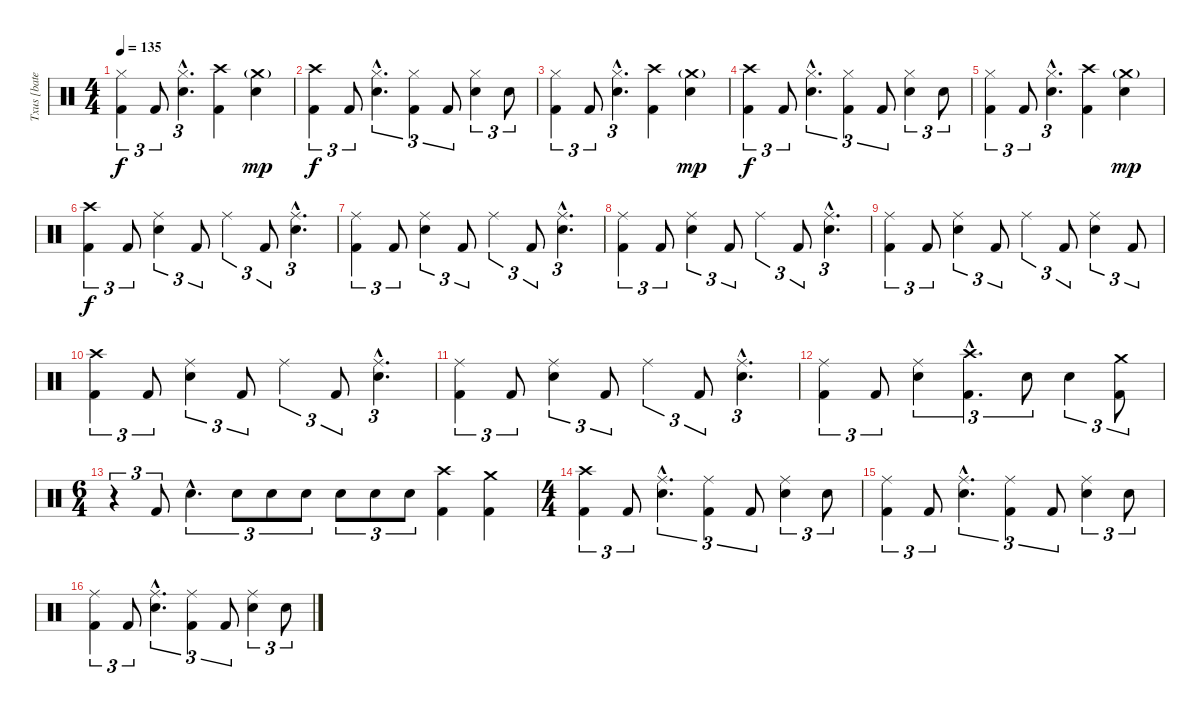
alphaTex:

\track ("Txus [bateria]" "Txus [bate") {instrument percussion}
\staff {score}
\articulation defaults
\ts (4 4)
\tempo 135
\clef neutral
\ks c
("Hi-Hat (closed)" "Kick (hit) 2").4{tu (3 2) dy f} "Kick (hit) 2".8{tu (3 2)} ("Hi-Hat (closed)"{hac} "Snare (hit) 2"{hac}).4{d tu (3 2)} ("Crash high (hit)" "Kick (hit) 2").4 ("Crash medium (hit)"{g} "Snare (hit) 2").4{dy mp} |
("Crash high (hit)" "Kick (hit) 2").4{tu (3 2) dy f} "Kick (hit) 2".8{tu (3 2)} ("Hi-Hat (closed)"{hac} "Snare (hit) 2"{hac}).4{d tu (3 2)} ("Hi-Hat (closed)" "Kick (hit) 2").4{tu (3 2)} "Kick (hit) 2".8{tu (3 2)} ("Hi-Hat (closed)" "Snare (hit) 2").4{tu (3 2)} "Snare (hit) 2".8{tu (3 2)} |
("Hi-Hat (closed)" "Kick (hit) 2").4{tu (3 2)} "Kick (hit) 2".8{tu (3 2)} ("Hi-Hat (closed)"{hac} "Snare (hit) 2"{hac}).4{d tu (3 2)} ("Crash high (hit)" "Kick (hit) 2").4 ("Crash medium (hit)"{g} "Snare (hit) 2").4{dy mp} |
("Crash high (hit)" "Kick (hit) 2").4{tu (3 2) dy f} "Kick (hit) 2".8{tu (3 2)} ("Hi-Hat (closed)"{hac} "Snare (hit) 2"{hac}).4{d tu (3 2)} ("Hi-Hat (closed)" "Kick (hit) 2").4{tu (3 2)} "Kick (hit) 2".8{tu (3 2)} ("Hi-Hat (closed)" "Snare (hit) 2").4{tu (3 2)} "Snare (hit) 2".8{tu (3 2)} |
("Hi-Hat (closed)" "Kick (hit) 2").4{tu (3 2)} "Kick (hit) 2".8{tu (3 2)} ("Hi-Hat (closed)"{hac} "Snare (hit) 2"{hac}).4{d tu (3 2)} ("Crash high (hit)" "Kick (hit) 2").4 ("Crash medium (hit)"{g} "Snare (hit) 2").4{dy mp} |
("Crash high (hit)" "Kick (hit) 2").4{tu (3 2) dy f} "Kick (hit) 2".8{tu (3 2)} ("Ride (middle)" "Snare (hit) 2").4{tu (3 2)} "Kick (hit) 2".8{tu (3 2)} "Ride (middle)".4{tu (3 2)} "Kick (hit) 2".8{tu (3 2)} ("Ride (middle)"{hac} "Snare (hit) 2"{hac}).4{d tu (3 2)} |
("Ride (middle)" "Kick (hit) 2").4{tu (3 2)} "Kick (hit) 2".8{tu (3 2)} ("Ride (middle)" "Snare (hit) 2").4{tu (3 2)} "Kick (hit) 2".8{tu (3 2)} "Ride (middle)".4{tu (3 2)} "Kick (hit) 2".8{tu (3 2)} ("Ride (middle)"{hac} "Snare (hit) 2"{hac}).4{d tu (3 2)} |
("Ride (middle)" "Kick (hit) 2").4{tu (3 2)} "Kick (hit) 2".8{tu (3 2)} ("Ride (middle)" "Snare (hit) 2").4{tu (3 2)} "Kick (hit) 2".8{tu (3 2)} "Ride (middle)".4{tu (3 2)} "Kick (hit) 2".8{tu (3 2)} ("Ride (middle)"{hac} "Snare (hit) 2"{hac}).4{d tu (3 2)} |
("Ride (middle)" "Kick (hit) 2").4{tu (3 2)} "Kick (hit) 2".8{tu (3 2)} ("Ride (middle)" "Snare (hit) 2").4{tu (3 2)} "Kick (hit) 2".8{tu (3 2)} "Ride (middle)".4{tu (3 2)} "Kick (hit) 2".8{tu (3 2)} ("Ride (middle)" "Snare (hit) 2").4{tu (3 2)} "Kick (hit) 2".8{tu (3 2)} |
("Crash high (hit)" "Kick (hit) 2").4{tu (3 2)} "Kick (hit) 2".8{tu (3 2)} ("Ride (middle)" "Snare (hit) 2").4{tu (3 2)} "Kick (hit) 2".8{tu (3 2)} "Ride (middle)".4{tu (3 2)} "Kick (hit) 2".8{tu (3 2)} ("Ride (middle)"{hac} "Snare (hit) 2"{hac}).4{d tu (3 2)} |
("Ride (middle)" "Kick (hit) 2").4{tu (3 2)} "Kick (hit) 2".8{tu (3 2)} ("Ride (middle)" "Snare (hit) 2").4{tu (3 2)} "Kick (hit) 2".8{tu (3 2)} "Ride (middle)".4{tu (3 2)} "Kick (hit) 2".8{tu (3 2)} ("Ride (middle)"{hac} "Snare (hit) 2"{hac}).4{d tu (3 2)} |
("Ride (middle)" "Kick (hit) 2").4{tu (3 2)} "Kick (hit) 2".8{tu (3 2)} ("Ride (middle)" "Snare (hit) 2").4{tu (3 2)} ("Crash high (hit)"{hac} "Kick (hit) 2"{hac}).4{d tu (3 2)} "Snare (hit) 2".8{tu (3 2)} "Snare (hit) 2".4{tu (3 2)} ("Crash medium (hit)" "Kick (hit) 2").8{tu (3 2)} |
\ts (6 4)
r.4{tu (3 2)} "Kick (hit) 2".8{tu (3 2)} "Snare (hit) 2"{hac}.4{d tu (3 2)} "Snare (hit) 2".8{tu (3 2)} "Snare (hit) 2".8{tu (3 2)} "Snare (hit) 2".8{tu (3 2)} "Snare (hit) 2".8{tu (3 2)} "Snare (hit) 2".8{tu (3 2)} "Snare (hit) 2".8{tu (3 2)} ("Crash high (hit)" "Kick (hit) 2").4 ("Crash medium (hit)" "Kick (hit) 2").4 |
\ts (4 4)
("Crash high (hit)" "Kick (hit) 2").4{tu (3 2)} "Kick (hit) 2".8{tu (3 2)} ("Ride (middle)"{hac} "Snare (hit) 2"{hac}).4{d tu (3 2)} ("Ride (middle)" "Kick (hit) 2").4{tu (3 2)} "Kick (hit) 2".8{tu (3 2)} ("Ride (middle)" "Snare (hit) 2").4{tu (3 2)} "Snare (hit) 2".8{tu (3 2)} |
("Ride (middle)" "Kick (hit) 2").4{tu (3 2)} "Kick (hit) 2".8{tu (3 2)} ("Ride (middle)"{hac} "Snare (hit) 2"{hac}).4{d tu (3 2)} ("Ride (middle)" "Kick (hit) 2").4{tu (3 2)} "Kick (hit) 2".8{tu (3 2)} ("Ride (middle)" "Snare (hit) 2").4{tu (3 2)} "Snare (hit) 2".8{tu (3 2)} |
("Ride (middle)" "Kick (hit) 2").4{tu (3 2)} "Kick (hit) 2".8{tu (3 2)} ("Ride (middle)"{hac} "Snare (hit) 2"{hac}).4{d tu (3 2)} ("Ride (middle)" "Kick (hit) 2").4{tu (3 2)} "Kick (hit) 2".8{tu (3 2)} ("Ride (middle)" "Snare (hit) 2").4{tu (3 2)} "Snare (hit) 2".8{tu (3 2)}
